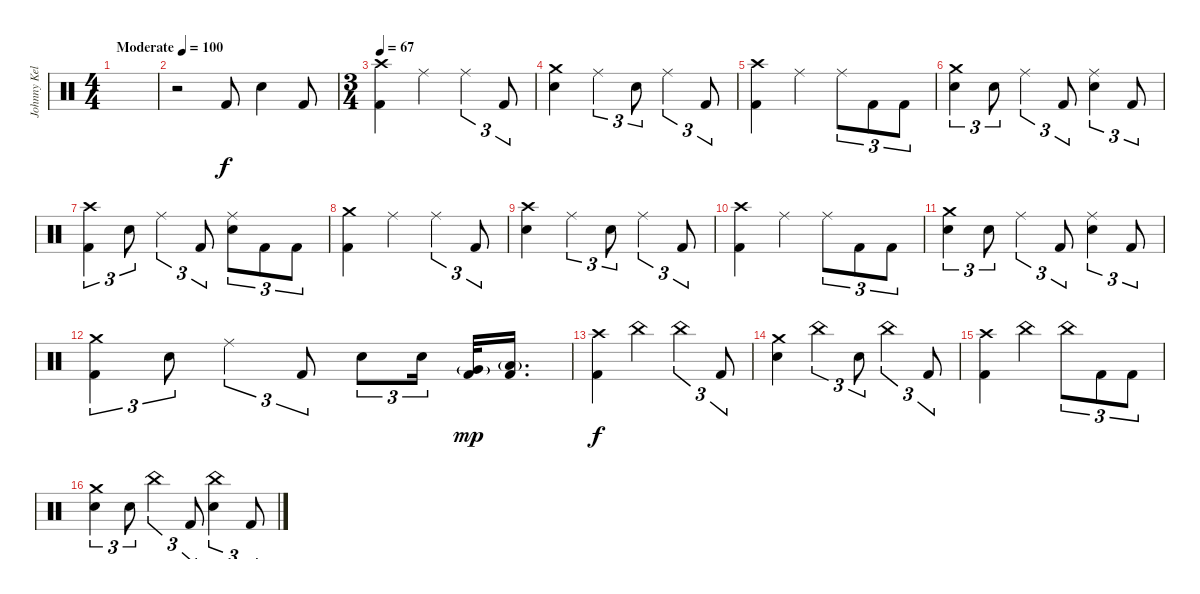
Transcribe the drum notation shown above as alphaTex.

\track ("Johnny Kelly" "Johnny Kel") {instrument percussion}
\staff {score}
\articulation defaults
\ts (4 4)
\tempo (100 "Moderate")
\clef neutral
\ks c
|
r.2 "Kick (hit) 2".8 "Electric Snare (hit)".4 "Kick (hit) 2".8 |
\ts (3 4)
\tempo 67
("Crash high (hit)" "Kick (hit) 2").4 "Ride (middle)".4 "Ride (middle)".4{tu (3 2)} "Kick (hit) 2".8{tu (3 2)} |
("Crash medium (hit)" "Electric Snare (hit)").4 "Ride (middle)".4{tu (3 2)} "Electric Snare (hit)".8{tu (3 2)} "Ride (middle)".4{tu (3 2)} "Kick (hit) 2".8{tu (3 2)} |
("Crash high (hit)" "Kick (hit) 2").4 "Ride (middle)".4 "Ride (middle)".8{tu (3 2)} "Kick (hit) 2".8{tu (3 2)} "Kick (hit) 2".8{tu (3 2)} |
("Crash medium (hit)" "Electric Snare (hit)").4{tu (3 2)} "Electric Snare (hit)".8{tu (3 2)} "Ride (middle)".4{tu (3 2)} "Kick (hit) 2".8{tu (3 2)} ("Ride (middle)" "Electric Snare (hit)").4{tu (3 2)} "Kick (hit) 2".8{tu (3 2)} |
("Crash high (hit)" "Kick (hit) 2").4{tu (3 2)} "Electric Snare (hit)".8{tu (3 2)} "Ride (middle)".4{tu (3 2)} "Kick (hit) 2".8{tu (3 2)} ("Ride (middle)" "Electric Snare (hit)").8{tu (3 2)} "Kick (hit) 2".8{tu (3 2)} "Kick (hit) 2".8{tu (3 2)} |
("Crash medium (hit)" "Kick (hit) 2").4 "Ride (middle)".4 "Ride (middle)".4{tu (3 2)} "Kick (hit) 2".8{tu (3 2)} |
("Crash high (hit)" "Electric Snare (hit)").4 "Ride (middle)".4{tu (3 2)} "Electric Snare (hit)".8{tu (3 2)} "Ride (middle)".4{tu (3 2)} "Kick (hit) 2".8{tu (3 2)} |
("Crash high (hit)" "Kick (hit) 2").4 "Ride (middle)".4 "Ride (middle)".8{tu (3 2)} "Kick (hit) 2".8{tu (3 2)} "Kick (hit) 2".8{tu (3 2)} |
("Crash medium (hit)" "Electric Snare (hit)").4{tu (3 2)} "Electric Snare (hit)".8{tu (3 2)} "Ride (middle)".4{tu (3 2)} "Kick (hit) 2".8{tu (3 2)} ("Ride (middle)" "Electric Snare (hit)").4{tu (3 2)} "Kick (hit) 2".8{tu (3 2)} |
("Crash medium (hit)" "Kick (hit) 2").4{tu (3 2)} "Electric Snare (hit)".8{tu (3 2)} "Ride (middle)".4{tu (3 2)} "Kick (hit) 2".8{tu (3 2)} "Electric Snare (hit)".8{tu (3 2)} "Electric Snare (hit)".16{tu (3 2) beam splitsecondary} ("Very Low Tom (hit)"{g} "Kick (hit) 2").32{dy mp} ("Low Floor Tom (hit)"{g} "Kick (hit) 2").16{d} |
("Crash high (hit)" "Kick (hit) 2").4{dy f} "China (hit)".4 "China (hit)".4{tu (3 2)} "Kick (hit) 2".8{tu (3 2)} |
("Crash medium (hit)" "Electric Snare (hit)").4 "China (hit)".4{tu (3 2)} "Electric Snare (hit)".8{tu (3 2)} "China (hit)".4{tu (3 2)} "Kick (hit) 2".8{tu (3 2)} |
("Crash high (hit)" "Kick (hit) 2").4 "China (hit)".4 "China (hit)".8{tu (3 2)} "Kick (hit) 2".8{tu (3 2)} "Kick (hit) 2".8{tu (3 2)} |
("Crash medium (hit)" "Electric Snare (hit)").4{tu (3 2)} "Electric Snare (hit)".8{tu (3 2)} "China (hit)".4{tu (3 2)} "Kick (hit) 2".8{tu (3 2)} ("China (hit)" "Electric Snare (hit)").4{tu (3 2)} "Kick (hit) 2".8{tu (3 2)}
